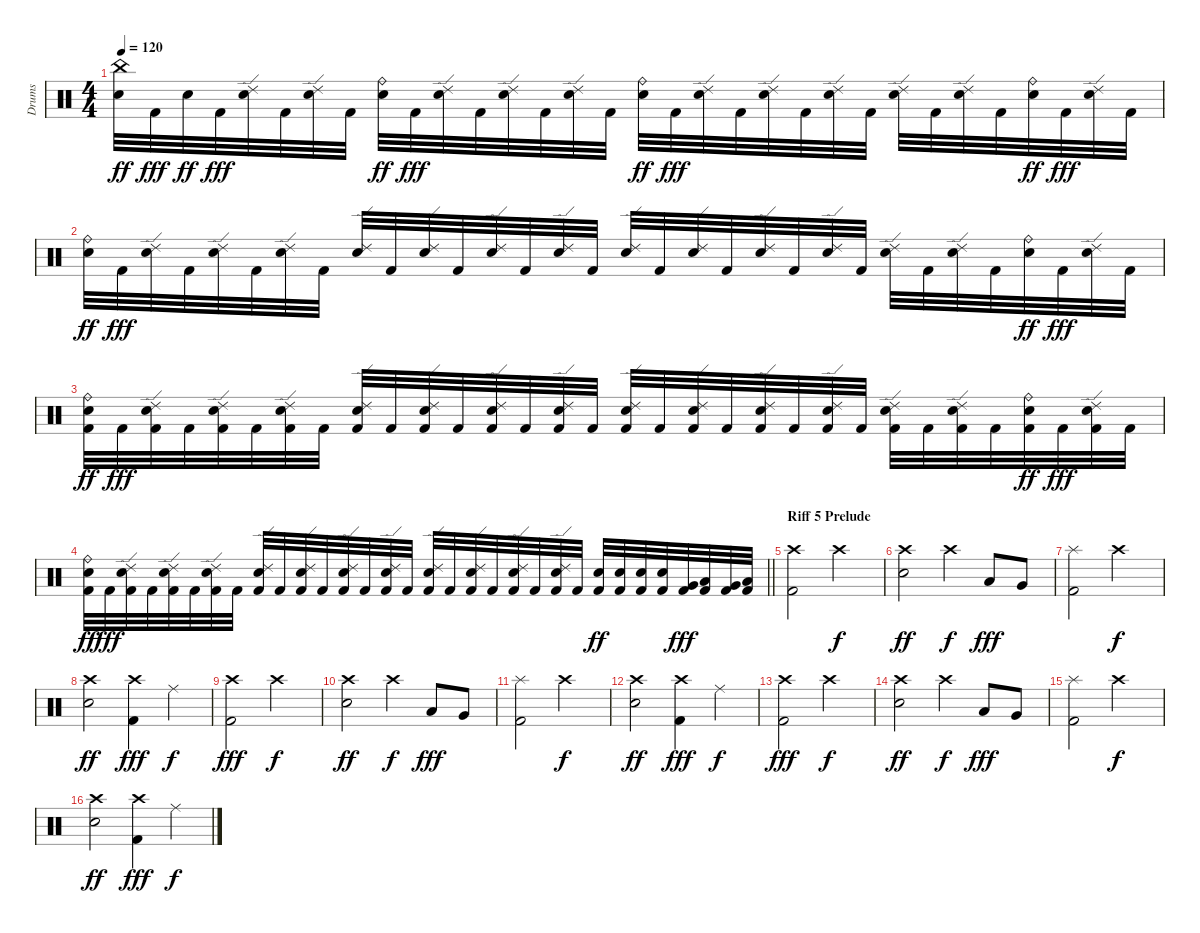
\track ("Drums" "Drums") {instrument percussion}
\staff {score}
\articulation defaults
\ts (4 4)
\tempo 120
\clef neutral
\ks c
("Snare (hit) 2" "China (hit)").32{dy ff} "Kick (hit) 2".32{dy fff} "Snare (hit) 2".32{dy ff} "Kick (hit) 2".32{dy fff} ("Snare (hit) 2" "Ride (edge) 2").32 "Kick (hit) 2".32 ("Snare (hit) 2" "Ride (edge) 2").32 "Kick (hit) 2".32 ("Snare (hit) 2" "Ride (bell)").32{dy ff} "Kick (hit) 2".32{dy fff} ("Snare (hit) 2" "Ride (edge) 2").32 "Kick (hit) 2".32 ("Snare (hit) 2" "Ride (edge) 2").32 "Kick (hit) 2".32 ("Snare (hit) 2" "Ride (edge) 2").32 "Kick (hit) 2".32 ("Snare (hit) 2" "Ride (bell)").32{dy ff} "Kick (hit) 2".32{dy fff} ("Snare (hit) 2" "Ride (edge) 2").32 "Kick (hit) 2".32 ("Snare (hit) 2" "Ride (edge) 2").32 "Kick (hit) 2".32 ("Snare (hit) 2" "Ride (edge) 2").32 "Kick (hit) 2".32 ("Snare (hit) 2" "Ride (edge) 2").32 "Kick (hit) 2".32 ("Snare (hit) 2" "Ride (edge) 2").32 "Kick (hit) 2".32 ("Snare (hit) 2" "Ride (bell)").32{dy ff} "Kick (hit) 2".32{dy fff} ("Snare (hit) 2" "Ride (edge) 2").32 "Kick (hit) 2".32 |
("Snare (hit) 2" "Ride (bell)").32{dy ff} "Kick (hit) 2".32{dy fff} ("Snare (hit) 2" "Ride (edge) 2").32 "Kick (hit) 2".32 ("Snare (hit) 2" "Ride (edge) 2").32 "Kick (hit) 2".32 ("Snare (hit) 2" "Ride (edge) 2").32 "Kick (hit) 2".32 ("Snare (hit) 2" "Ride (edge) 2").32 "Kick (hit) 2".32 ("Snare (hit) 2" "Ride (edge) 2").32 "Kick (hit) 2".32 ("Snare (hit) 2" "Ride (edge) 2").32 "Kick (hit) 2".32 ("Snare (hit) 2" "Ride (edge) 2").32 "Kick (hit) 2".32 ("Snare (hit) 2" "Ride (edge) 2").32 "Kick (hit) 2".32 ("Snare (hit) 2" "Ride (edge) 2").32 "Kick (hit) 2".32 ("Snare (hit) 2" "Ride (edge) 2").32 "Kick (hit) 2".32 ("Snare (hit) 2" "Ride (edge) 2").32 "Kick (hit) 2".32 ("Snare (hit) 2" "Ride (edge) 2").32 "Kick (hit) 2".32 ("Snare (hit) 2" "Ride (edge) 2").32 "Kick (hit) 2".32 ("Snare (hit) 2" "Ride (bell)").32{dy ff} "Kick (hit) 2".32{dy fff} ("Snare (hit) 2" "Ride (edge) 2").32 "Kick (hit) 2".32 |
("Kick (hit) 2" "Snare (hit) 2" "Ride (bell)").32{dy ff} "Kick (hit) 2".32{dy fff} ("Kick (hit) 2" "Snare (hit) 2" "Ride (edge) 2").32 "Kick (hit) 2".32 ("Kick (hit) 2" "Snare (hit) 2" "Ride (edge) 2").32 "Kick (hit) 2".32 ("Kick (hit) 2" "Snare (hit) 2" "Ride (edge) 2").32 "Kick (hit) 2".32 ("Kick (hit) 2" "Snare (hit) 2" "Ride (edge) 2").32 "Kick (hit) 2".32 ("Kick (hit) 2" "Snare (hit) 2" "Ride (edge) 2").32 "Kick (hit) 2".32 ("Kick (hit) 2" "Snare (hit) 2" "Ride (edge) 2").32 "Kick (hit) 2".32 ("Kick (hit) 2" "Snare (hit) 2" "Ride (edge) 2").32 "Kick (hit) 2".32 ("Kick (hit) 2" "Snare (hit) 2" "Ride (edge) 2").32 "Kick (hit) 2".32 ("Kick (hit) 2" "Snare (hit) 2" "Ride (edge) 2").32 "Kick (hit) 2".32 ("Kick (hit) 2" "Snare (hit) 2" "Ride (edge) 2").32 "Kick (hit) 2".32 ("Kick (hit) 2" "Snare (hit) 2" "Ride (edge) 2").32 "Kick (hit) 2".32 ("Kick (hit) 2" "Snare (hit) 2" "Ride (edge) 2").32 "Kick (hit) 2".32 ("Kick (hit) 2" "Snare (hit) 2" "Ride (edge) 2").32 "Kick (hit) 2".32 ("Kick (hit) 2" "Snare (hit) 2" "Ride (bell)").32{dy ff} "Kick (hit) 2".32{dy fff} ("Kick (hit) 2" "Snare (hit) 2" "Ride (edge) 2").32 "Kick (hit) 2".32 |
\barLineRight lightlight
("Kick (hit) 2" "Snare (hit) 2" "Ride (bell)").32{dy ff} "Kick (hit) 2".32{dy fff} ("Kick (hit) 2" "Snare (hit) 2" "Ride (edge) 2").32 "Kick (hit) 2".32 ("Kick (hit) 2" "Snare (hit) 2" "Ride (edge) 2").32 "Kick (hit) 2".32 ("Kick (hit) 2" "Snare (hit) 2" "Ride (edge) 2").32 "Kick (hit) 2".32 ("Kick (hit) 2" "Snare (hit) 2" "Ride (edge) 2").32 "Kick (hit) 2".32 ("Kick (hit) 2" "Snare (hit) 2" "Ride (edge) 2").32 "Kick (hit) 2".32 ("Kick (hit) 2" "Snare (hit) 2" "Ride (edge) 2").32 "Kick (hit) 2".32 ("Kick (hit) 2" "Snare (hit) 2" "Ride (edge) 2").32 "Kick (hit) 2".32 ("Kick (hit) 2" "Snare (hit) 2" "Ride (edge) 2").32 "Kick (hit) 2".32 ("Kick (hit) 2" "Snare (hit) 2" "Ride (edge) 2").32 "Kick (hit) 2".32 ("Kick (hit) 2" "Snare (hit) 2" "Ride (edge) 2").32 "Kick (hit) 2".32 ("Kick (hit) 2" "Snare (hit) 2" "Ride (edge) 2").32 "Kick (hit) 2".32 ("Kick (hit) 2" "Snare (hit) 2").32{dy ff} ("Kick (hit) 2" "Snare (hit) 2").32 ("Kick (hit) 2" "Snare (hit) 2").32 ("Kick (hit) 2" "Snare (hit) 2").32 ("Kick (hit) 2" "Very Low Tom (hit)").32{dy fff} ("Kick (hit) 2" "Low Floor Tom (hit)").32 ("Kick (hit) 2" "Very Low Tom (hit)").32 ("Kick (hit) 2" "Low Floor Tom (hit)").32 |
\section ("" "Riff 5 Prelude")
("Kick (hit) 2" "Crash high (hit)").2 "Crash high (hit)".2{dy f} |
("Snare (hit) 2" "Crash high (hit)").2{dy ff} "Crash high (hit)".4{dy f} "Low Tom (hit)".8{dy fff} "Very Low Tom (hit)".8 |
("Kick (hit) 2" "Splash (hit)").2 "Crash high (hit)".2{dy f} |
("Snare (hit) 2" "Crash high (hit)").2{dy ff} ("Kick (hit) 2" "Crash high (hit)").4{dy fff} "Ride (middle)".4{dy f} |
("Kick (hit) 2" "Crash high (hit)").2{dy fff} "Crash high (hit)".2{dy f} |
("Snare (hit) 2" "Crash high (hit)").2{dy ff} "Crash high (hit)".4{dy f} "Low Tom (hit)".8{dy fff} "Very Low Tom (hit)".8 |
("Kick (hit) 2" "Splash (hit)").2 "Crash high (hit)".2{dy f} |
("Snare (hit) 2" "Crash high (hit)").2{dy ff} ("Kick (hit) 2" "Crash high (hit)").4{dy fff} "Ride (middle)".4{dy f} |
("Kick (hit) 2" "Crash high (hit)").2{dy fff} "Crash high (hit)".2{dy f} |
("Snare (hit) 2" "Crash high (hit)").2{dy ff} "Crash high (hit)".4{dy f} "Low Tom (hit)".8{dy fff} "Very Low Tom (hit)".8 |
("Kick (hit) 2" "Splash (hit)").2 "Crash high (hit)".2{dy f} |
("Snare (hit) 2" "Crash high (hit)").2{dy ff} ("Kick (hit) 2" "Crash high (hit)").4{dy fff} "Ride (middle)".4{dy f}
